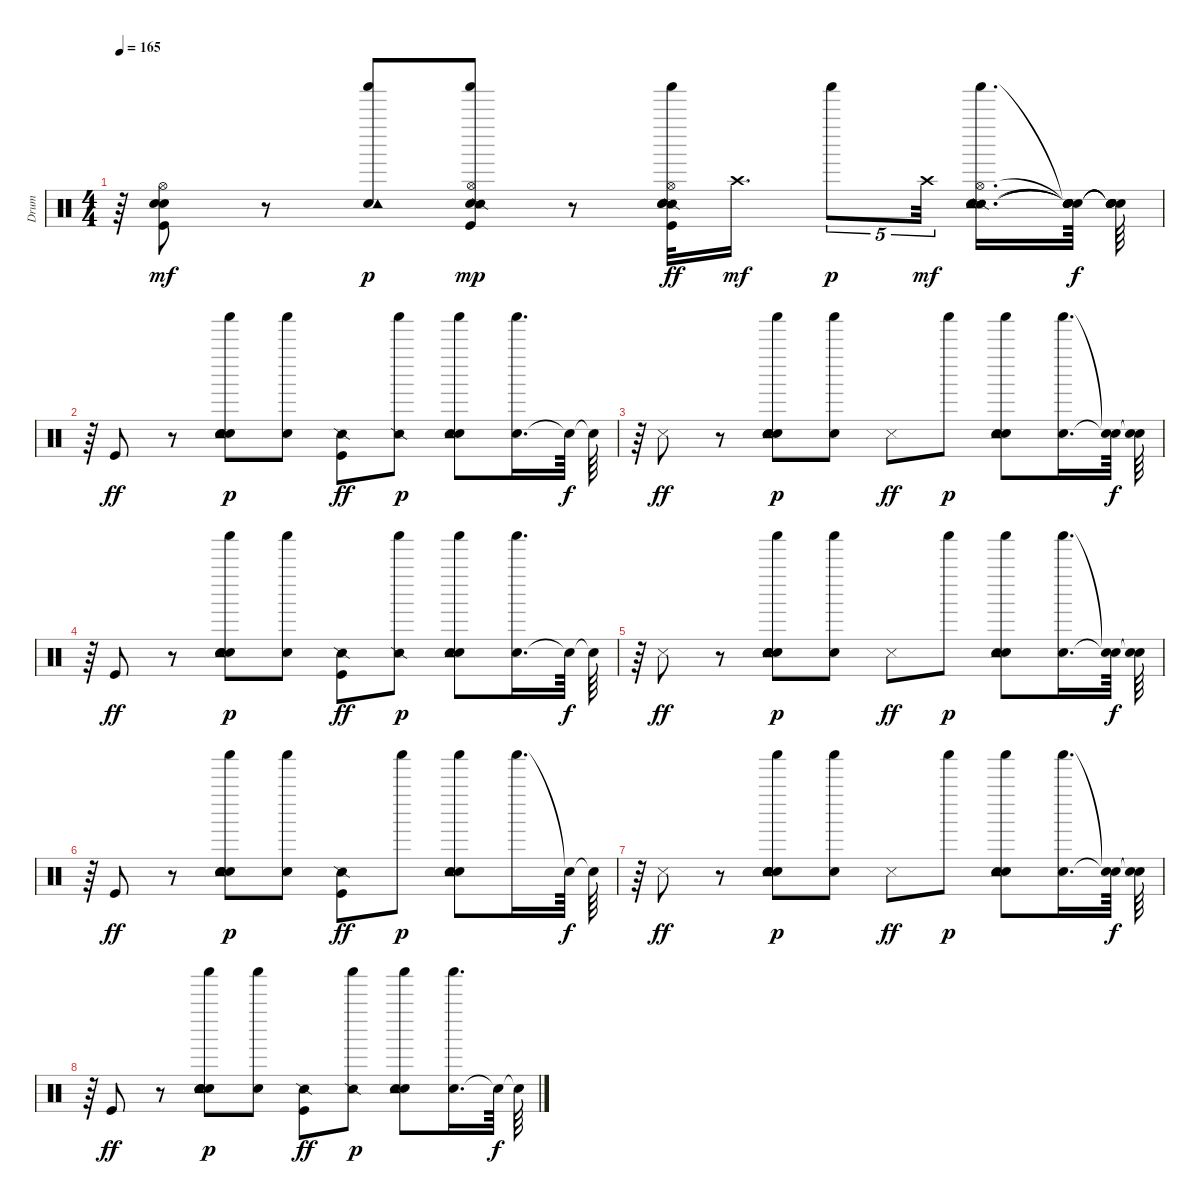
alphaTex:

\track ("Drum" "Drum") {instrument percussion}
\staff {score}
\articulation defaults
\ts (4 4)
\tempo 165
\clef neutral
\ks c
r.64{dy f} ("Kick (hit)" "Hand Clap (hit)" "Electric Snare (hit)" "Hi-Hat (open)").8{dy mf} r.8 ("Shaker (hit)" "Hand Clap (hit)" "Tambourine (hit)").8{dy p} ("Shaker (hit)" "Hi-Hat (open)" "Electric Snare (hit)" "Kick (hit)" "Snare (side stick) 2").8{dy mp} r.8 ("Shaker (hit)" "Snare (side stick) 2" "Hi-Hat (open)" "Electric Snare (hit)" "Hand Clap (hit)" "Kick (hit)").32{dy ff} "Crash high (hit)".16{d dy mf} "Shaker (hit)".8{tu (5 4) dy p} "Crash high (hit)".32{tu (5 4) dy mf} ("Shaker (hit)" "Snare (side stick) 2" "Hi-Hat (open)" "Electric Snare (hit)" "Tambourine (hit)" "Hand Clap (hit)").16{d} ("Snare (hit)"{t} "Snare (hit)"{t} "Snare (hit)"{t} "Snare (hit)"{t} "Snare (hit)"{t}).64{dy f} ("Snare (hit)"{t} "Snare (hit)"{t} "Snare (hit)"{t} "Snare (hit)"{t} "Snare (hit)"{t}).64 |
r.64 "Kick (hit)".8{dy ff} r.8 ("Hand Clap (hit)" "Metronome (bell)" "Tambourine (hit)" "Electric Snare (hit)" "Shaker (hit)").8{dy p} ("Hand Clap (hit)" "Shaker (hit)").8 ("Snare (side stick) 2" "Kick (hit)").8{dy ff} ("Snare (side stick) 2" "Shaker (hit)").8{dy p} ("Hand Clap (hit)" "Tambourine (hit)" "Electric Snare (hit)" "Shaker (hit)").8 ("Metronome (bell)" "Shaker (hit)").16{d} "Snare (hit)"{t}.64{dy f} "Snare (hit)"{t}.64 |
r.64 "Metronome (hit)".8{dy ff} r.8 ("Hand Clap (hit)" "Metronome (bell)" "Tambourine (hit)" "Electric Snare (hit)" "Shaker (hit)").8{dy p} ("Hand Clap (hit)" "Shaker (hit)").8 "Metronome (hit)".8{dy ff} "Shaker (hit)".8{dy p} ("Hand Clap (hit)" "Tambourine (hit)" "Electric Snare (hit)" "Shaker (hit)").8 ("Metronome (bell)" "Shaker (hit)").16{d} ("Snare (hit)"{t} "Snare (hit)"{t}).64{dy f} ("Snare (hit)"{t} "Snare (hit)"{t}).64 |
r.64 "Kick (hit)".8{dy ff} r.8 ("Hand Clap (hit)" "Metronome (bell)" "Tambourine (hit)" "Electric Snare (hit)" "Shaker (hit)").8{dy p} ("Hand Clap (hit)" "Shaker (hit)").8 ("Snare (side stick) 2" "Kick (hit)").8{dy ff} ("Snare (side stick) 2" "Shaker (hit)").8{dy p} ("Hand Clap (hit)" "Tambourine (hit)" "Electric Snare (hit)" "Shaker (hit)").8 ("Metronome (bell)" "Shaker (hit)").16{d} "Snare (hit)"{t}.64{dy f} "Snare (hit)"{t}.64 |
r.64 "Metronome (hit)".8{dy ff} r.8 ("Hand Clap (hit)" "Metronome (bell)" "Tambourine (hit)" "Electric Snare (hit)" "Shaker (hit)").8{dy p} ("Hand Clap (hit)" "Shaker (hit)").8 "Metronome (hit)".8{dy ff} "Shaker (hit)".8{dy p} ("Hand Clap (hit)" "Tambourine (hit)" "Electric Snare (hit)" "Shaker (hit)").8 ("Metronome (bell)" "Shaker (hit)").16{d} ("Snare (hit)"{t} "Snare (hit)"{t}).64{dy f} ("Snare (hit)"{t} "Snare (hit)"{t}).64 |
r.64 "Kick (hit)".8{dy ff} r.8 ("Hand Clap (hit)" "Metronome (bell)" "Tambourine (hit)" "Electric Snare (hit)" "Shaker (hit)").8{dy p} ("Hand Clap (hit)" "Shaker (hit)").8 ("Snare (side stick) 2" "Kick (hit)").8{dy ff} "Shaker (hit)".8{dy p} ("Hand Clap (hit)" "Tambourine (hit)" "Electric Snare (hit)" "Shaker (hit)").8 "Shaker (hit)".16{d} "Snare (hit)"{t}.64{dy f} "Snare (hit)"{t}.64 |
r.64 "Metronome (hit)".8{dy ff} r.8 ("Hand Clap (hit)" "Metronome (bell)" "Tambourine (hit)" "Electric Snare (hit)" "Shaker (hit)").8{dy p} ("Hand Clap (hit)" "Shaker (hit)").8 "Metronome (hit)".8{dy ff} "Shaker (hit)".8{dy p} ("Hand Clap (hit)" "Tambourine (hit)" "Electric Snare (hit)" "Shaker (hit)").8 ("Metronome (bell)" "Shaker (hit)").16{d} ("Snare (hit)"{t} "Snare (hit)"{t}).64{dy f} ("Snare (hit)"{t} "Snare (hit)"{t}).64 |
r.64 "Kick (hit)".8{dy ff} r.8 ("Hand Clap (hit)" "Metronome (bell)" "Tambourine (hit)" "Electric Snare (hit)" "Shaker (hit)").8{dy p} ("Hand Clap (hit)" "Shaker (hit)").8 ("Snare (side stick) 2" "Kick (hit)").8{dy ff} ("Snare (side stick) 2" "Shaker (hit)").8{dy p} ("Hand Clap (hit)" "Tambourine (hit)" "Electric Snare (hit)" "Shaker (hit)").8 ("Metronome (bell)" "Shaker (hit)").16{d} "Snare (hit)"{t}.64{dy f} "Snare (hit)"{t}.64
